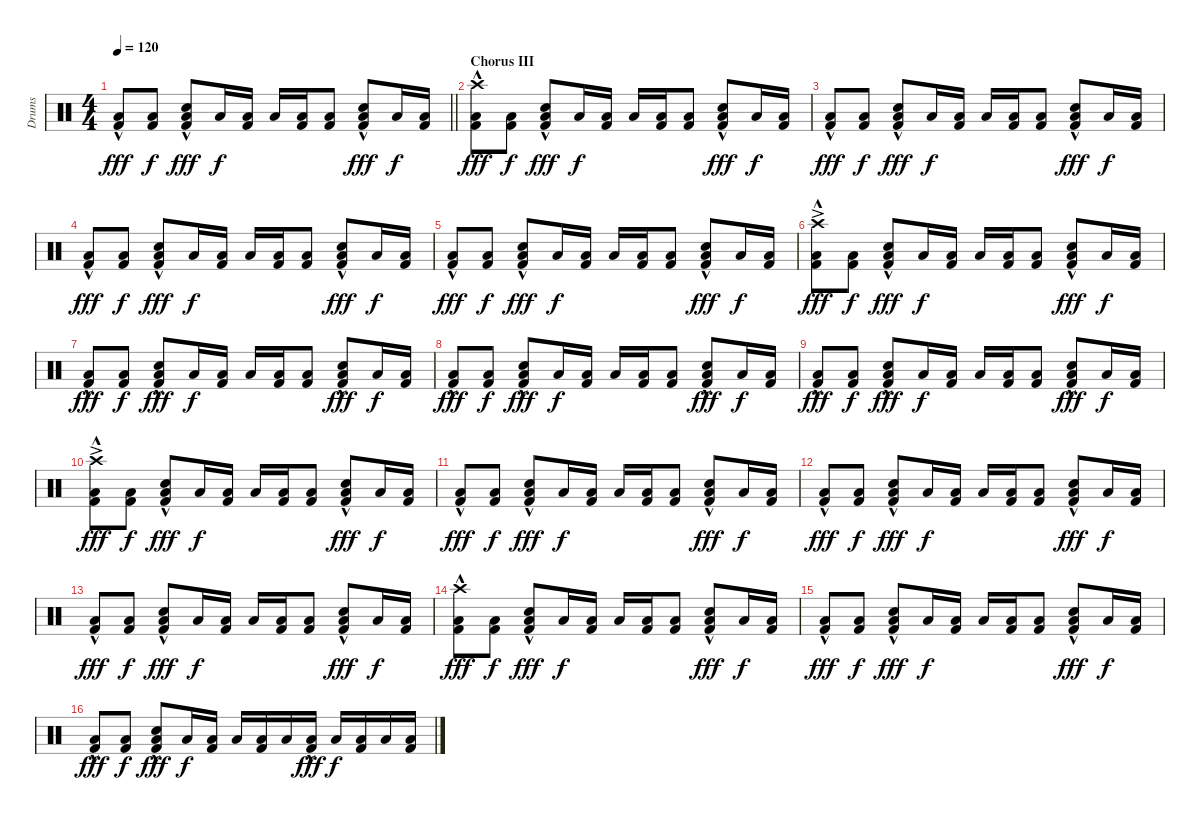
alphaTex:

\track ("Drums" "Drums") {instrument percussion}
\staff {score}
\articulation defaults
\ts (4 4)
\tempo 120
\clef neutral
\barLineRight lightlight
\ks c
("Low Floor Tom (hit)"{hac} "Kick (hit) 2"{hac}).8{dy fff} ("Low Floor Tom (hit)" "Kick (hit) 2").8{dy f} ("Snare (hit) 2"{hac} "Low Floor Tom (hit)"{hac} "Kick (hit) 2"{hac}).8{dy fff} "Low Tom (hit)".16{dy f} ("Low Floor Tom (hit)" "Kick (hit) 2").16 "Low Tom (hit)".16 ("Low Floor Tom (hit)" "Kick (hit) 2").16 ("Low Tom (hit)" "Kick (hit) 2").8 ("Snare (hit) 2"{hac} "Low Floor Tom (hit)"{hac} "Kick (hit) 2"{hac}).8{dy fff} "Low Floor Tom (hit)".16{dy f} ("Low Floor Tom (hit)" "Kick (hit) 2").16 |
\section ("" "Chorus III")
("Crash high (hit)"{hac} "Low Floor Tom (hit)"{hac} "Kick (hit) 2"{hac}).8{dy fff} ("Low Floor Tom (hit)" "Kick (hit) 2").8{dy f} ("Snare (hit) 2"{hac} "Low Floor Tom (hit)"{hac} "Kick (hit) 2"{hac}).8{dy fff} "Low Tom (hit)".16{dy f} ("Low Floor Tom (hit)" "Kick (hit) 2").16 "Low Tom (hit)".16 ("Low Floor Tom (hit)" "Kick (hit) 2").16 ("Low Tom (hit)" "Kick (hit) 2").8 ("Snare (hit) 2"{hac} "Low Floor Tom (hit)"{hac} "Kick (hit) 2"{hac}).8{dy fff} "Low Floor Tom (hit)".16{dy f} ("Low Floor Tom (hit)" "Kick (hit) 2").16 |
("Low Floor Tom (hit)"{hac} "Kick (hit) 2"{hac}).8{dy fff} ("Low Floor Tom (hit)" "Kick (hit) 2").8{dy f} ("Snare (hit) 2"{hac} "Low Floor Tom (hit)"{hac} "Kick (hit) 2"{hac}).8{dy fff} "Low Tom (hit)".16{dy f} ("Low Floor Tom (hit)" "Kick (hit) 2").16 "Low Tom (hit)".16 ("Low Floor Tom (hit)" "Kick (hit) 2").16 ("Low Tom (hit)" "Kick (hit) 2").8 ("Snare (hit) 2"{hac} "Low Floor Tom (hit)"{hac} "Kick (hit) 2"{hac}).8{dy fff} "Low Floor Tom (hit)".16{dy f} ("Low Floor Tom (hit)" "Kick (hit) 2").16 |
("Low Floor Tom (hit)"{hac} "Kick (hit) 2"{hac}).8{dy fff} ("Low Floor Tom (hit)" "Kick (hit) 2").8{dy f} ("Snare (hit) 2"{hac} "Low Floor Tom (hit)"{hac} "Kick (hit) 2"{hac}).8{dy fff} "Low Tom (hit)".16{dy f} ("Low Floor Tom (hit)" "Kick (hit) 2").16 "Low Tom (hit)".16 ("Low Floor Tom (hit)" "Kick (hit) 2").16 ("Low Tom (hit)" "Kick (hit) 2").8 ("Snare (hit) 2"{hac} "Low Floor Tom (hit)"{hac} "Kick (hit) 2"{hac}).8{dy fff} "Low Floor Tom (hit)".16{dy f} ("Low Floor Tom (hit)" "Kick (hit) 2").16 |
("Low Floor Tom (hit)"{hac} "Kick (hit) 2"{hac}).8{dy fff} ("Low Floor Tom (hit)" "Kick (hit) 2").8{dy f} ("Snare (hit) 2"{hac} "Low Floor Tom (hit)"{hac} "Kick (hit) 2"{hac}).8{dy fff} "Low Tom (hit)".16{dy f} ("Low Floor Tom (hit)" "Kick (hit) 2").16 "Low Tom (hit)".16 ("Low Floor Tom (hit)" "Kick (hit) 2").16 ("Low Tom (hit)" "Kick (hit) 2").8 ("Snare (hit) 2"{hac} "Low Floor Tom (hit)"{hac} "Kick (hit) 2"{hac}).8{dy fff} "Low Floor Tom (hit)".16{dy f} ("Low Floor Tom (hit)" "Kick (hit) 2").16 |
("Crash high (hit)"{ac} "Low Floor Tom (hit)"{hac} "Kick (hit) 2"{hac}).8{dy fff} ("Low Floor Tom (hit)" "Kick (hit) 2").8{dy f} ("Snare (hit) 2"{hac} "Low Floor Tom (hit)"{hac} "Kick (hit) 2"{hac}).8{dy fff} "Low Tom (hit)".16{dy f} ("Low Floor Tom (hit)" "Kick (hit) 2").16 "Low Tom (hit)".16 ("Low Floor Tom (hit)" "Kick (hit) 2").16 ("Low Tom (hit)" "Kick (hit) 2").8 ("Snare (hit) 2"{hac} "Low Floor Tom (hit)"{hac} "Kick (hit) 2"{hac}).8{dy fff} "Low Floor Tom (hit)".16{dy f} ("Low Floor Tom (hit)" "Kick (hit) 2").16 |
("Low Floor Tom (hit)"{hac} "Kick (hit) 2"{hac}).8{dy fff} ("Low Floor Tom (hit)" "Kick (hit) 2").8{dy f} ("Snare (hit) 2"{hac} "Low Floor Tom (hit)"{hac} "Kick (hit) 2"{hac}).8{dy fff} "Low Tom (hit)".16{dy f} ("Low Floor Tom (hit)" "Kick (hit) 2").16 "Low Tom (hit)".16 ("Low Floor Tom (hit)" "Kick (hit) 2").16 ("Low Tom (hit)" "Kick (hit) 2").8 ("Snare (hit) 2"{hac} "Low Floor Tom (hit)"{hac} "Kick (hit) 2"{hac}).8{dy fff} "Low Floor Tom (hit)".16{dy f} ("Low Floor Tom (hit)" "Kick (hit) 2").16 |
("Low Floor Tom (hit)"{hac} "Kick (hit) 2"{hac}).8{dy fff} ("Low Floor Tom (hit)" "Kick (hit) 2").8{dy f} ("Snare (hit) 2"{hac} "Low Floor Tom (hit)"{hac} "Kick (hit) 2"{hac}).8{dy fff} "Low Tom (hit)".16{dy f} ("Low Floor Tom (hit)" "Kick (hit) 2").16 "Low Tom (hit)".16 ("Low Floor Tom (hit)" "Kick (hit) 2").16 ("Low Tom (hit)" "Kick (hit) 2").8 ("Snare (hit) 2"{hac} "Low Floor Tom (hit)"{hac} "Kick (hit) 2"{hac}).8{dy fff} "Low Floor Tom (hit)".16{dy f} ("Low Floor Tom (hit)" "Kick (hit) 2").16 |
("Low Floor Tom (hit)"{hac} "Kick (hit) 2"{hac}).8{dy fff} ("Low Floor Tom (hit)" "Kick (hit) 2").8{dy f} ("Snare (hit) 2"{hac} "Low Floor Tom (hit)"{hac} "Kick (hit) 2"{hac}).8{dy fff} "Low Tom (hit)".16{dy f} ("Low Floor Tom (hit)" "Kick (hit) 2").16 "Low Tom (hit)".16 ("Low Floor Tom (hit)" "Kick (hit) 2").16 ("Low Tom (hit)" "Kick (hit) 2").8 ("Snare (hit) 2"{hac} "Low Floor Tom (hit)"{hac} "Kick (hit) 2"{hac}).8{dy fff} "Low Floor Tom (hit)".16{dy f} ("Low Floor Tom (hit)" "Kick (hit) 2").16 |
("Crash high (hit)"{ac} "Low Floor Tom (hit)"{hac} "Kick (hit) 2"{hac}).8{dy fff} ("Low Floor Tom (hit)" "Kick (hit) 2").8{dy f} ("Snare (hit) 2"{hac} "Low Floor Tom (hit)"{hac} "Kick (hit) 2"{hac}).8{dy fff} "Low Tom (hit)".16{dy f} ("Low Floor Tom (hit)" "Kick (hit) 2").16 "Low Tom (hit)".16 ("Low Floor Tom (hit)" "Kick (hit) 2").16 ("Low Tom (hit)" "Kick (hit) 2").8 ("Snare (hit) 2"{hac} "Low Floor Tom (hit)"{hac} "Kick (hit) 2"{hac}).8{dy fff} "Low Floor Tom (hit)".16{dy f} ("Low Floor Tom (hit)" "Kick (hit) 2").16 |
("Low Floor Tom (hit)"{hac} "Kick (hit) 2"{hac}).8{dy fff} ("Low Floor Tom (hit)" "Kick (hit) 2").8{dy f} ("Snare (hit) 2"{hac} "Low Floor Tom (hit)"{hac} "Kick (hit) 2"{hac}).8{dy fff} "Low Tom (hit)".16{dy f} ("Low Floor Tom (hit)" "Kick (hit) 2").16 "Low Tom (hit)".16 ("Low Floor Tom (hit)" "Kick (hit) 2").16 ("Low Tom (hit)" "Kick (hit) 2").8 ("Snare (hit) 2"{hac} "Low Floor Tom (hit)"{hac} "Kick (hit) 2"{hac}).8{dy fff} "Low Floor Tom (hit)".16{dy f} ("Low Floor Tom (hit)" "Kick (hit) 2").16 |
("Low Floor Tom (hit)"{hac} "Kick (hit) 2"{hac}).8{dy fff} ("Low Floor Tom (hit)" "Kick (hit) 2").8{dy f} ("Snare (hit) 2"{hac} "Low Floor Tom (hit)"{hac} "Kick (hit) 2"{hac}).8{dy fff} "Low Tom (hit)".16{dy f} ("Low Floor Tom (hit)" "Kick (hit) 2").16 "Low Tom (hit)".16 ("Low Floor Tom (hit)" "Kick (hit) 2").16 ("Low Tom (hit)" "Kick (hit) 2").8 ("Snare (hit) 2"{hac} "Low Floor Tom (hit)"{hac} "Kick (hit) 2"{hac}).8{dy fff} "Low Floor Tom (hit)".16{dy f} ("Low Floor Tom (hit)" "Kick (hit) 2").16 |
("Low Floor Tom (hit)"{hac} "Kick (hit) 2"{hac}).8{dy fff} ("Low Floor Tom (hit)" "Kick (hit) 2").8{dy f} ("Snare (hit) 2"{hac} "Low Floor Tom (hit)"{hac} "Kick (hit) 2"{hac}).8{dy fff} "Low Tom (hit)".16{dy f} ("Low Floor Tom (hit)" "Kick (hit) 2").16 "Low Tom (hit)".16 ("Low Floor Tom (hit)" "Kick (hit) 2").16 ("Low Tom (hit)" "Kick (hit) 2").8 ("Snare (hit) 2"{hac} "Low Floor Tom (hit)"{hac} "Kick (hit) 2"{hac}).8{dy fff} "Low Floor Tom (hit)".16{dy f} ("Low Floor Tom (hit)" "Kick (hit) 2").16 |
("Crash high (hit)"{hac} "Low Floor Tom (hit)"{hac} "Kick (hit) 2"{hac}).8{dy fff} ("Low Floor Tom (hit)" "Kick (hit) 2").8{dy f} ("Snare (hit) 2"{hac} "Low Floor Tom (hit)"{hac} "Kick (hit) 2"{hac}).8{dy fff} "Low Tom (hit)".16{dy f} ("Low Floor Tom (hit)" "Kick (hit) 2").16 "Low Tom (hit)".16 ("Low Floor Tom (hit)" "Kick (hit) 2").16 ("Low Tom (hit)" "Kick (hit) 2").8 ("Snare (hit) 2"{hac} "Low Floor Tom (hit)"{hac} "Kick (hit) 2"{hac}).8{dy fff} "Low Floor Tom (hit)".16{dy f} ("Low Floor Tom (hit)" "Kick (hit) 2").16 |
("Low Floor Tom (hit)"{hac} "Kick (hit) 2"{hac}).8{dy fff} ("Low Floor Tom (hit)" "Kick (hit) 2").8{dy f} ("Snare (hit) 2"{hac} "Low Floor Tom (hit)"{hac} "Kick (hit) 2"{hac}).8{dy fff} "Low Tom (hit)".16{dy f} ("Low Floor Tom (hit)" "Kick (hit) 2").16 "Low Tom (hit)".16 ("Low Floor Tom (hit)" "Kick (hit) 2").16 ("Low Tom (hit)" "Kick (hit) 2").8 ("Snare (hit) 2"{hac} "Low Floor Tom (hit)"{hac} "Kick (hit) 2"{hac}).8{dy fff} "Low Floor Tom (hit)".16{dy f} ("Low Floor Tom (hit)" "Kick (hit) 2").16 |
("Low Floor Tom (hit)"{hac} "Kick (hit) 2"{hac}).8{dy fff} ("Low Floor Tom (hit)" "Kick (hit) 2").8{dy f} ("Snare (hit) 2"{hac} "Low Floor Tom (hit)"{hac} "Kick (hit) 2"{hac}).8{dy fff} "Low Tom (hit)".16{dy f} ("Low Floor Tom (hit)" "Kick (hit) 2").16 "Low Tom (hit)".16 ("Low Floor Tom (hit)" "Kick (hit) 2").16 "Low Tom (hit)".16 ("Low Floor Tom (hit)"{hac} "Kick (hit) 2").16{dy fff} "Low Tom (hit)".16{dy f} ("Low Floor Tom (hit)" "Kick (hit) 2").16 "Low Tom (hit)".16 ("Low Floor Tom (hit)" "Kick (hit) 2").16
